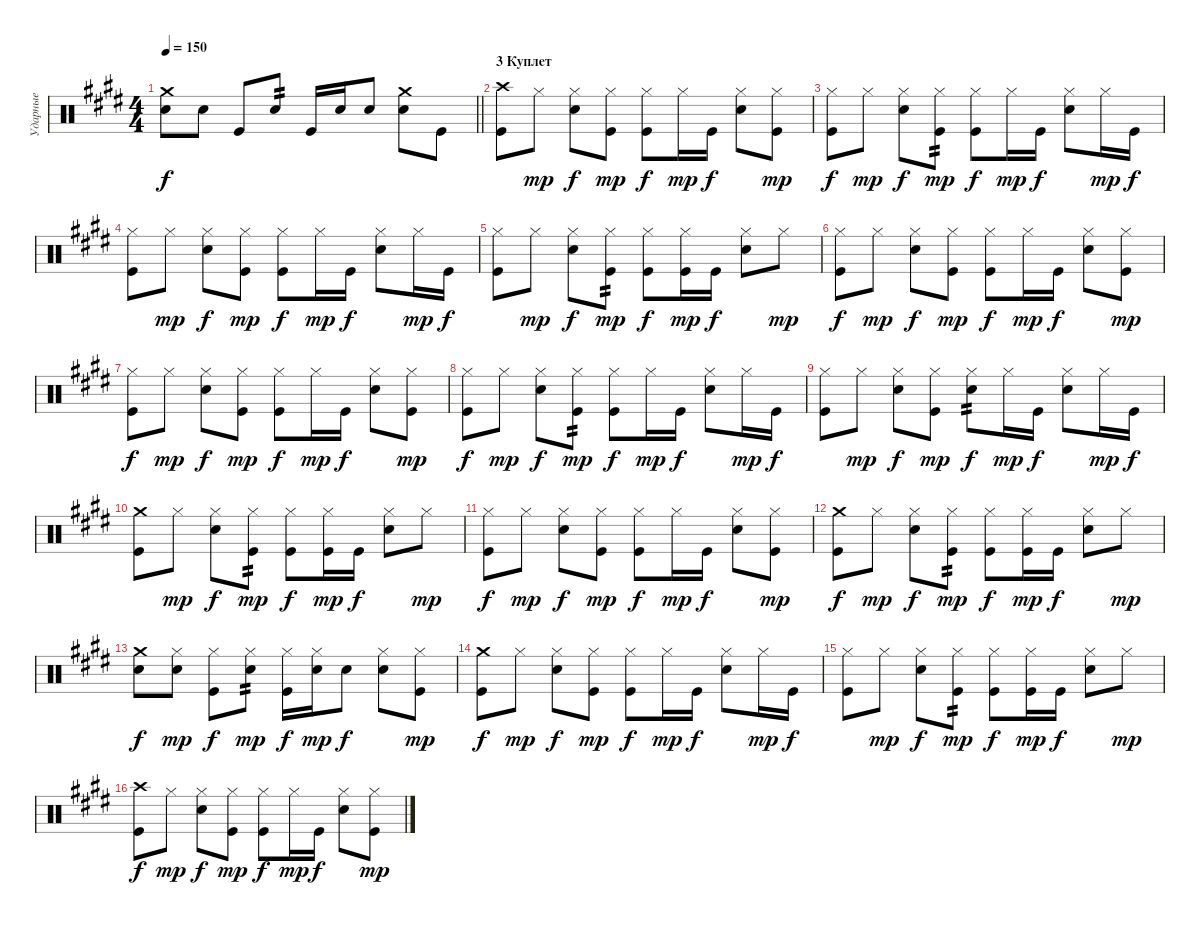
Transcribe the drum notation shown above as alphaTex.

\track ("Ударные" "Ударные") {instrument percussion}
\staff {score}
\articulation defaults
\ts (4 4)
\tempo 150
\clef neutral
\barLineRight lightlight
\ks c#minor
("Crash medium (hit)" "Snare (hit) 2").8{dy f} "Snare (hit) 2".8 "Kick (hit)".8 "Snare (hit) 2".8{tp 2} "Kick (hit)".16 "Snare (hit) 2".16 "Snare (hit) 2".8 ("Crash medium (hit)" "Snare (hit) 2").8 "Kick (hit)".8 |
\section ("" "3 Куплет")
("Crash high (hit)" "Kick (hit)").8 "Hi-Hat (closed)".8{dy mp} ("Hi-Hat (closed)" "Snare (hit) 2").8{dy f} ("Hi-Hat (closed)" "Kick (hit)").8{dy mp} ("Hi-Hat (closed)" "Kick (hit)").8{dy f} "Hi-Hat (closed)".16{dy mp} "Kick (hit)".16{dy f} ("Hi-Hat (closed)" "Snare (hit) 2").8 ("Hi-Hat (closed)" "Kick (hit)").8{dy mp} |
("Hi-Hat (closed)" "Kick (hit)").8{dy f} "Hi-Hat (closed)".8{dy mp} ("Hi-Hat (closed)" "Snare (hit) 2").8{dy f} ("Hi-Hat (closed)" "Kick (hit)").8{tp 2 dy mp} ("Hi-Hat (closed)" "Kick (hit)").8{dy f} "Hi-Hat (closed)".16{dy mp} "Kick (hit)".16{dy f} ("Hi-Hat (closed)" "Snare (hit) 2").8 "Hi-Hat (closed)".16{dy mp} "Kick (hit)".16{dy f} |
("Hi-Hat (closed)" "Kick (hit)").8 "Hi-Hat (closed)".8{dy mp} ("Hi-Hat (closed)" "Snare (hit) 2").8{dy f} ("Hi-Hat (closed)" "Kick (hit)").8{dy mp} ("Hi-Hat (closed)" "Kick (hit)").8{dy f} "Hi-Hat (closed)".16{dy mp} "Kick (hit)".16{dy f} ("Hi-Hat (closed)" "Snare (hit) 2").8 "Hi-Hat (closed)".16{dy mp} "Kick (hit)".16{dy f} |
("Hi-Hat (closed)" "Kick (hit)").8 "Hi-Hat (closed)".8{dy mp} ("Hi-Hat (closed)" "Snare (hit) 2").8{dy f} ("Hi-Hat (closed)" "Kick (hit)").8{tp 2 dy mp} ("Hi-Hat (closed)" "Kick (hit)").8{dy f} ("Hi-Hat (closed)" "Kick (hit)").16{dy mp} "Kick (hit)".16{dy f} ("Hi-Hat (closed)" "Snare (hit) 2").8 "Hi-Hat (closed)".8{dy mp} |
("Hi-Hat (closed)" "Kick (hit)").8{dy f} "Hi-Hat (closed)".8{dy mp} ("Hi-Hat (closed)" "Snare (hit) 2").8{dy f} ("Hi-Hat (closed)" "Kick (hit)").8{dy mp} ("Hi-Hat (closed)" "Kick (hit)").8{dy f} "Hi-Hat (closed)".16{dy mp} "Kick (hit)".16{dy f} ("Hi-Hat (closed)" "Snare (hit) 2").8 ("Hi-Hat (closed)" "Kick (hit)").8{dy mp} |
("Hi-Hat (closed)" "Kick (hit)").8{dy f} "Hi-Hat (closed)".8{dy mp} ("Hi-Hat (closed)" "Snare (hit) 2").8{dy f} ("Hi-Hat (closed)" "Kick (hit)").8{dy mp} ("Hi-Hat (closed)" "Kick (hit)").8{dy f} "Hi-Hat (closed)".16{dy mp} "Kick (hit)".16{dy f} ("Hi-Hat (closed)" "Snare (hit) 2").8 ("Hi-Hat (closed)" "Kick (hit)").8{dy mp} |
("Hi-Hat (closed)" "Kick (hit)").8{dy f} "Hi-Hat (closed)".8{dy mp} ("Hi-Hat (closed)" "Snare (hit) 2").8{dy f} ("Hi-Hat (closed)" "Kick (hit)").8{tp 2 dy mp} ("Hi-Hat (closed)" "Kick (hit)").8{dy f} "Hi-Hat (closed)".16{dy mp} "Kick (hit)".16{dy f} ("Hi-Hat (closed)" "Snare (hit) 2").8 "Hi-Hat (closed)".16{dy mp} "Kick (hit)".16{dy f} |
("Hi-Hat (closed)" "Kick (hit)").8 "Hi-Hat (closed)".8{dy mp} ("Hi-Hat (closed)" "Snare (hit) 2").8{dy f} ("Hi-Hat (closed)" "Kick (hit)").8{dy mp} ("Hi-Hat (closed)" "Snare (hit) 2").8{tp 2 dy f} "Hi-Hat (closed)".16{dy mp} "Kick (hit)".16{dy f} ("Hi-Hat (closed)" "Snare (hit) 2").8 "Hi-Hat (closed)".16{dy mp} "Kick (hit)".16{dy f} |
("Crash medium (hit)" "Kick (hit)").8 "Hi-Hat (closed)".8{dy mp} ("Hi-Hat (closed)" "Snare (hit) 2").8{dy f} ("Hi-Hat (closed)" "Kick (hit)").8{tp 2 dy mp} ("Hi-Hat (closed)" "Kick (hit)").8{dy f} ("Hi-Hat (closed)" "Kick (hit)").16{dy mp} "Kick (hit)".16{dy f} ("Hi-Hat (closed)" "Snare (hit) 2").8 "Hi-Hat (closed)".8{dy mp} |
("Hi-Hat (closed)" "Kick (hit)").8{dy f} "Hi-Hat (closed)".8{dy mp} ("Hi-Hat (closed)" "Snare (hit) 2").8{dy f} ("Hi-Hat (closed)" "Kick (hit)").8{dy mp} ("Hi-Hat (closed)" "Kick (hit)").8{dy f} "Hi-Hat (closed)".16{dy mp} "Kick (hit)".16{dy f} ("Hi-Hat (closed)" "Snare (hit) 2").8 ("Hi-Hat (closed)" "Kick (hit)").8{dy mp} |
("Crash medium (hit)" "Kick (hit)").8{dy f} "Hi-Hat (closed)".8{dy mp} ("Hi-Hat (closed)" "Snare (hit) 2").8{dy f} ("Hi-Hat (closed)" "Kick (hit)").8{tp 2 dy mp} ("Hi-Hat (closed)" "Kick (hit)").8{dy f} ("Hi-Hat (closed)" "Kick (hit)").16{dy mp} "Kick (hit)".16{dy f} ("Hi-Hat (closed)" "Snare (hit) 2").8 "Hi-Hat (closed)".8{dy mp} |
("Crash medium (hit)" "Snare (hit) 2").8{dy f} ("Hi-Hat (closed)" "Snare (hit) 2").8{dy mp} ("Hi-Hat (closed)" "Kick (hit)").8{dy f} ("Hi-Hat (closed)" "Snare (hit) 2").8{tp 2 dy mp} ("Hi-Hat (closed)" "Kick (hit)").16{dy f} ("Hi-Hat (closed)" "Snare (hit) 2").16{dy mp} "Snare (hit) 2".8{dy f} ("Hi-Hat (closed)" "Snare (hit) 2").8 ("Hi-Hat (closed)" "Kick (hit)").8{dy mp} |
("Crash medium (hit)" "Kick (hit)").8{dy f} "Hi-Hat (closed)".8{dy mp} ("Hi-Hat (closed)" "Snare (hit) 2").8{dy f} ("Hi-Hat (closed)" "Kick (hit)").8{dy mp} ("Hi-Hat (closed)" "Kick (hit)").8{dy f} "Hi-Hat (closed)".16{dy mp} "Kick (hit)".16{dy f} ("Hi-Hat (closed)" "Snare (hit) 2").8 "Hi-Hat (closed)".16{dy mp} "Kick (hit)".16{dy f} |
("Hi-Hat (closed)" "Kick (hit)").8 "Hi-Hat (closed)".8{dy mp} ("Hi-Hat (closed)" "Snare (hit) 2").8{dy f} ("Hi-Hat (closed)" "Kick (hit)").8{tp 2 dy mp} ("Hi-Hat (closed)" "Kick (hit)").8{dy f} ("Hi-Hat (closed)" "Kick (hit)").16{dy mp} "Kick (hit)".16{dy f} ("Hi-Hat (closed)" "Snare (hit) 2").8 "Hi-Hat (closed)".8{dy mp} |
("Crash high (hit)" "Kick (hit)").8{dy f} "Hi-Hat (closed)".8{dy mp} ("Hi-Hat (closed)" "Snare (hit) 2").8{dy f} ("Hi-Hat (closed)" "Kick (hit)").8{dy mp} ("Hi-Hat (closed)" "Kick (hit)").8{dy f} "Hi-Hat (closed)".16{dy mp} "Kick (hit)".16{dy f} ("Hi-Hat (closed)" "Snare (hit) 2").8 ("Hi-Hat (closed)" "Kick (hit)").8{dy mp}
